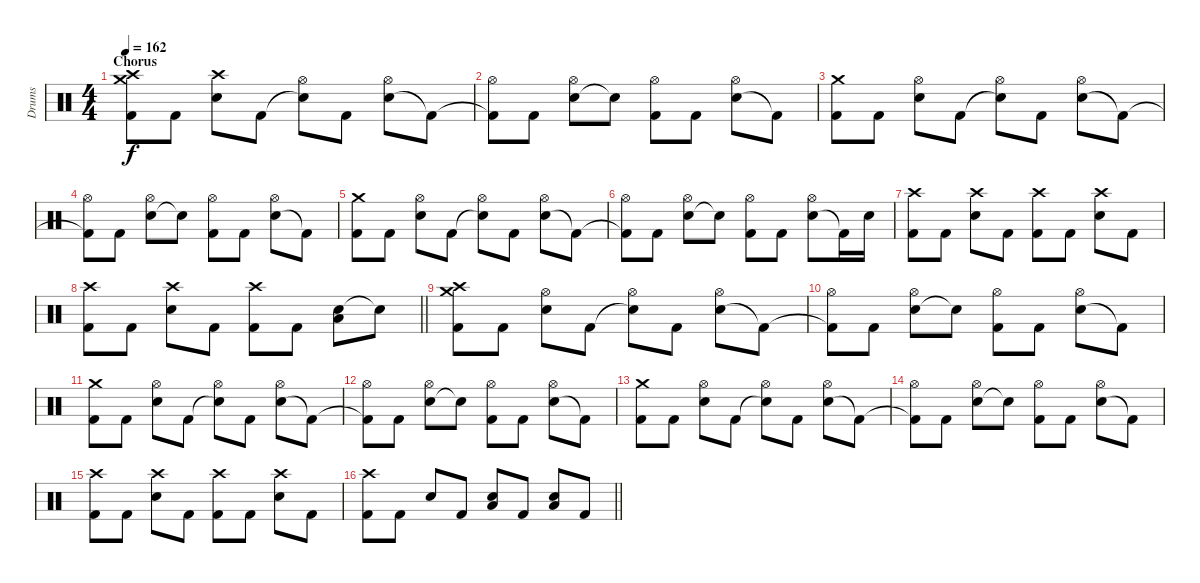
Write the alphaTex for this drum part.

\track ("Drums" "Drums") {instrument percussion}
\staff {score}
\articulation defaults
\ts (4 4)
\section ("" "Chorus")
\tempo 162
\clef neutral
\ks c
("Kick (hit) 2" "Crash medium (hit)" "Crash high (hit)").8{dy f} "Kick (hit) 2".8 ("Electric Snare (hit)" "Crash high (hit)").8 "Kick (hit) 2".8 ("Snare (hit)"{t} "Hi-Hat (open)").8 "Kick (hit) 2".8 ("Electric Snare (hit)" "Hi-Hat (open)").8 "Kick (hit) 2"{t}.8 |
("Kick (hit) 2"{t} "Hi-Hat (open)").8 "Kick (hit) 2".8 ("Electric Snare (hit)" "Hi-Hat (open)").8 "Snare (hit)"{t}.8 ("Kick (hit) 2" "Hi-Hat (open)").8 "Kick (hit) 2".8 ("Electric Snare (hit)" "Hi-Hat (open)").8 "Kick (hit) 2"{t}.8 |
("Kick (hit) 2" "Crash medium (hit)").8 "Kick (hit) 2".8 ("Electric Snare (hit)" "Hi-Hat (open)").8 "Kick (hit) 2".8 ("Snare (hit)"{t} "Hi-Hat (open)").8 "Kick (hit) 2".8 ("Electric Snare (hit)" "Hi-Hat (open)").8 "Kick (hit) 2"{t}.8 |
("Kick (hit) 2"{t} "Hi-Hat (open)").8 "Kick (hit) 2".8 ("Electric Snare (hit)" "Hi-Hat (open)").8 "Snare (hit)"{t}.8 ("Kick (hit) 2" "Hi-Hat (open)").8 "Kick (hit) 2".8 ("Electric Snare (hit)" "Hi-Hat (open)").8 "Kick (hit) 2"{t}.8 |
("Kick (hit) 2" "Crash medium (hit)").8 "Kick (hit) 2".8 ("Electric Snare (hit)" "Hi-Hat (open)").8 "Kick (hit) 2".8 ("Snare (hit)"{t} "Hi-Hat (open)").8 "Kick (hit) 2".8 ("Electric Snare (hit)" "Hi-Hat (open)").8 "Kick (hit) 2"{t}.8 |
("Kick (hit) 2"{t} "Hi-Hat (open)").8 "Kick (hit) 2".8 ("Electric Snare (hit)" "Hi-Hat (open)").8 "Snare (hit)"{t}.8 ("Kick (hit) 2" "Hi-Hat (open)").8 "Kick (hit) 2".8 ("Electric Snare (hit)" "Hi-Hat (open)").8 "Kick (hit) 2"{t}.16 "Electric Snare (hit)".16 |
("Kick (hit) 2" "Crash high (hit)").8 "Kick (hit) 2".8 ("Electric Snare (hit)" "Crash high (hit)").8 "Kick (hit) 2".8 ("Kick (hit) 2" "Crash high (hit)").8 "Kick (hit) 2".8 ("Electric Snare (hit)" "Crash high (hit)").8 "Kick (hit) 2".8 |
\barLineRight lightlight
("Kick (hit) 2" "Crash high (hit)").8 "Kick (hit) 2".8 ("Electric Snare (hit)" "Crash high (hit)").8 "Kick (hit) 2".8 ("Kick (hit) 2" "Crash high (hit)").8 "Kick (hit) 2".8 ("Electric Snare (hit)" "Low Floor Tom (hit)").8 "Snare (hit)"{t}.8 |
("Kick (hit) 2" "Crash medium (hit)" "Crash high (hit)").8 "Kick (hit) 2".8 ("Electric Snare (hit)" "Hi-Hat (open)").8 "Kick (hit) 2".8 ("Snare (hit)"{t} "Hi-Hat (open)").8 "Kick (hit) 2".8 ("Electric Snare (hit)" "Hi-Hat (open)").8 "Kick (hit) 2"{t}.8 |
("Kick (hit) 2"{t} "Hi-Hat (open)").8 "Kick (hit) 2".8 ("Electric Snare (hit)" "Hi-Hat (open)").8 "Snare (hit)"{t}.8 ("Kick (hit) 2" "Hi-Hat (open)").8 "Kick (hit) 2".8 ("Electric Snare (hit)" "Hi-Hat (open)").8 "Kick (hit) 2"{t}.8 |
("Kick (hit) 2" "Crash medium (hit)").8 "Kick (hit) 2".8 ("Electric Snare (hit)" "Hi-Hat (open)").8 "Kick (hit) 2".8 ("Snare (hit)"{t} "Hi-Hat (open)").8 "Kick (hit) 2".8 ("Electric Snare (hit)" "Hi-Hat (open)").8 "Kick (hit) 2"{t}.8 |
("Kick (hit) 2"{t} "Hi-Hat (open)").8 "Kick (hit) 2".8 ("Electric Snare (hit)" "Hi-Hat (open)").8 "Snare (hit)"{t}.8 ("Kick (hit) 2" "Hi-Hat (open)").8 "Kick (hit) 2".8 ("Electric Snare (hit)" "Hi-Hat (open)").8 "Kick (hit) 2"{t}.8 |
("Kick (hit) 2" "Crash medium (hit)").8 "Kick (hit) 2".8 ("Electric Snare (hit)" "Hi-Hat (open)").8 "Kick (hit) 2".8 ("Snare (hit)"{t} "Hi-Hat (open)").8 "Kick (hit) 2".8 ("Electric Snare (hit)" "Hi-Hat (open)").8 "Kick (hit) 2"{t}.8 |
("Kick (hit) 2"{t} "Hi-Hat (open)").8 "Kick (hit) 2".8 ("Electric Snare (hit)" "Hi-Hat (open)").8 "Snare (hit)"{t}.8 ("Kick (hit) 2" "Hi-Hat (open)").8 "Kick (hit) 2".8 ("Electric Snare (hit)" "Hi-Hat (open)").8 "Kick (hit) 2"{t}.8 |
("Kick (hit) 2" "Crash high (hit)").8 "Kick (hit) 2".8 ("Electric Snare (hit)" "Crash high (hit)").8 "Kick (hit) 2".8 ("Kick (hit) 2" "Crash high (hit)").8 "Kick (hit) 2".8 ("Electric Snare (hit)" "Crash high (hit)").8 "Kick (hit) 2".8 |
\barLineRight lightlight
("Kick (hit) 2" "Crash high (hit)").8 "Kick (hit) 2".8 "Electric Snare (hit)".8 "Kick (hit) 2".8 ("Electric Snare (hit)" "Low Floor Tom (hit)").8 "Kick (hit) 2".8 ("Electric Snare (hit)" "Low Floor Tom (hit)").8 "Kick (hit) 2".8
